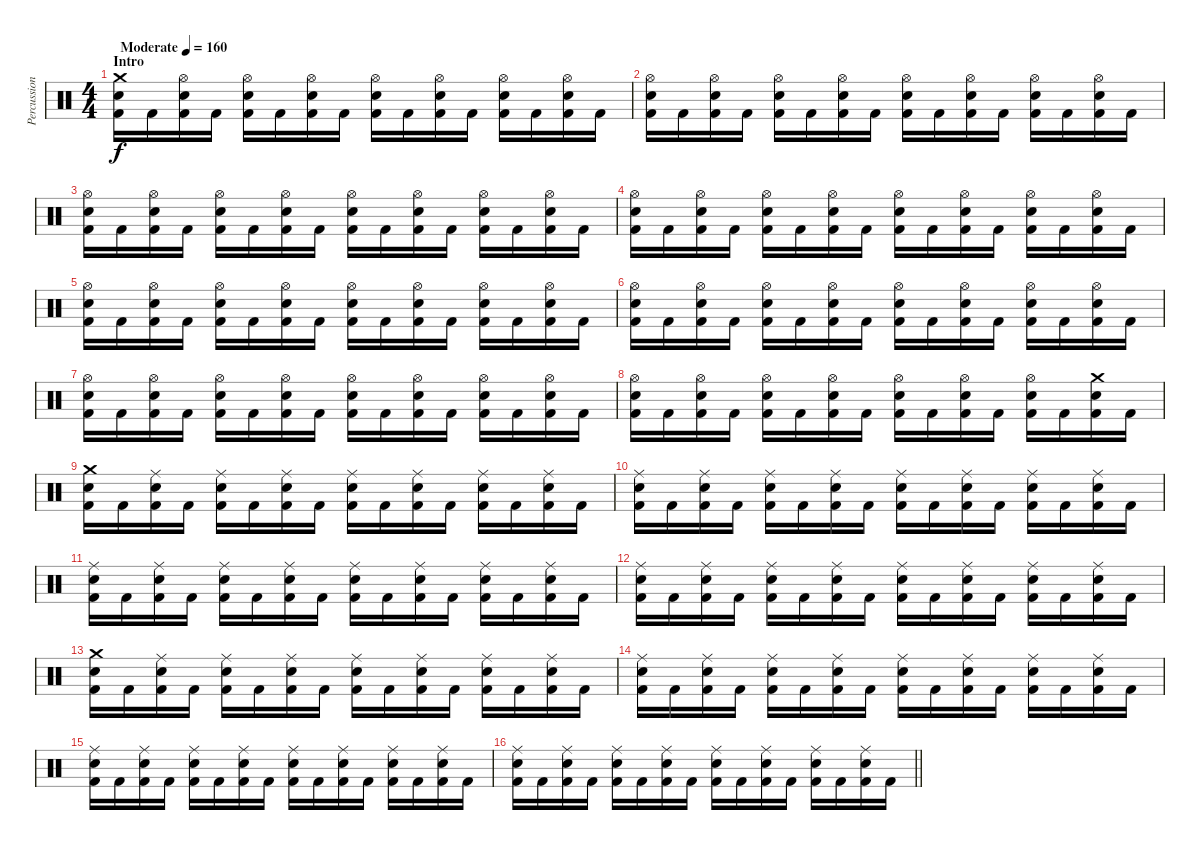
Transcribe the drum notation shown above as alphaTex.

\track ("Percussion" "Percussion") {instrument percussion}
\staff {score}
\articulation defaults
\ts (4 4)
\section ("" "Intro")
\tempo (160 "Moderate")
\clef neutral
\ks c
("Crash medium (hit)" "Snare (hit) 2" "Kick (hit) 2").16{dy f} "Kick (hit) 2".16 ("Hi-Hat (open)" "Snare (hit) 2" "Kick (hit) 2").16 "Kick (hit) 2".16 ("Hi-Hat (open)" "Snare (hit) 2" "Kick (hit) 2").16 "Kick (hit) 2".16 ("Hi-Hat (open)" "Snare (hit) 2" "Kick (hit) 2").16 "Kick (hit) 2".16 ("Hi-Hat (open)" "Snare (hit) 2" "Kick (hit) 2").16 "Kick (hit) 2".16 ("Hi-Hat (open)" "Snare (hit) 2" "Kick (hit) 2").16 "Kick (hit) 2".16 ("Hi-Hat (open)" "Snare (hit) 2" "Kick (hit) 2").16 "Kick (hit) 2".16 ("Hi-Hat (open)" "Snare (hit) 2" "Kick (hit) 2").16 "Kick (hit) 2".16 |
("Hi-Hat (open)" "Snare (hit) 2" "Kick (hit) 2").16 "Kick (hit) 2".16 ("Hi-Hat (open)" "Snare (hit) 2" "Kick (hit) 2").16 "Kick (hit) 2".16 ("Hi-Hat (open)" "Snare (hit) 2" "Kick (hit) 2").16 "Kick (hit) 2".16 ("Hi-Hat (open)" "Snare (hit) 2" "Kick (hit) 2").16 "Kick (hit) 2".16 ("Hi-Hat (open)" "Snare (hit) 2" "Kick (hit) 2").16 "Kick (hit) 2".16 ("Hi-Hat (open)" "Snare (hit) 2" "Kick (hit) 2").16 "Kick (hit) 2".16 ("Hi-Hat (open)" "Snare (hit) 2" "Kick (hit) 2").16 "Kick (hit) 2".16 ("Hi-Hat (open)" "Snare (hit) 2" "Kick (hit) 2").16 "Kick (hit) 2".16 |
("Hi-Hat (open)" "Snare (hit) 2" "Kick (hit) 2").16 "Kick (hit) 2".16 ("Hi-Hat (open)" "Snare (hit) 2" "Kick (hit) 2").16 "Kick (hit) 2".16 ("Hi-Hat (open)" "Snare (hit) 2" "Kick (hit) 2").16 "Kick (hit) 2".16 ("Hi-Hat (open)" "Snare (hit) 2" "Kick (hit) 2").16 "Kick (hit) 2".16 ("Hi-Hat (open)" "Snare (hit) 2" "Kick (hit) 2").16 "Kick (hit) 2".16 ("Hi-Hat (open)" "Snare (hit) 2" "Kick (hit) 2").16 "Kick (hit) 2".16 ("Hi-Hat (open)" "Snare (hit) 2" "Kick (hit) 2").16 "Kick (hit) 2".16 ("Hi-Hat (open)" "Snare (hit) 2" "Kick (hit) 2").16 "Kick (hit) 2".16 |
("Hi-Hat (open)" "Snare (hit) 2" "Kick (hit) 2").16 "Kick (hit) 2".16 ("Hi-Hat (open)" "Snare (hit) 2" "Kick (hit) 2").16 "Kick (hit) 2".16 ("Hi-Hat (open)" "Snare (hit) 2" "Kick (hit) 2").16 "Kick (hit) 2".16 ("Hi-Hat (open)" "Snare (hit) 2" "Kick (hit) 2").16 "Kick (hit) 2".16 ("Hi-Hat (open)" "Snare (hit) 2" "Kick (hit) 2").16 "Kick (hit) 2".16 ("Hi-Hat (open)" "Snare (hit) 2" "Kick (hit) 2").16 "Kick (hit) 2".16 ("Hi-Hat (open)" "Snare (hit) 2" "Kick (hit) 2").16 "Kick (hit) 2".16 ("Hi-Hat (open)" "Snare (hit) 2" "Kick (hit) 2").16 "Kick (hit) 2".16 |
("Hi-Hat (open)" "Snare (hit) 2" "Kick (hit) 2").16 "Kick (hit) 2".16 ("Hi-Hat (open)" "Snare (hit) 2" "Kick (hit) 2").16 "Kick (hit) 2".16 ("Hi-Hat (open)" "Snare (hit) 2" "Kick (hit) 2").16 "Kick (hit) 2".16 ("Hi-Hat (open)" "Snare (hit) 2" "Kick (hit) 2").16 "Kick (hit) 2".16 ("Hi-Hat (open)" "Snare (hit) 2" "Kick (hit) 2").16 "Kick (hit) 2".16 ("Hi-Hat (open)" "Snare (hit) 2" "Kick (hit) 2").16 "Kick (hit) 2".16 ("Hi-Hat (open)" "Snare (hit) 2" "Kick (hit) 2").16 "Kick (hit) 2".16 ("Hi-Hat (open)" "Snare (hit) 2" "Kick (hit) 2").16 "Kick (hit) 2".16 |
("Hi-Hat (open)" "Snare (hit) 2" "Kick (hit) 2").16 "Kick (hit) 2".16 ("Hi-Hat (open)" "Snare (hit) 2" "Kick (hit) 2").16 "Kick (hit) 2".16 ("Hi-Hat (open)" "Snare (hit) 2" "Kick (hit) 2").16 "Kick (hit) 2".16 ("Hi-Hat (open)" "Snare (hit) 2" "Kick (hit) 2").16 "Kick (hit) 2".16 ("Hi-Hat (open)" "Snare (hit) 2" "Kick (hit) 2").16 "Kick (hit) 2".16 ("Hi-Hat (open)" "Snare (hit) 2" "Kick (hit) 2").16 "Kick (hit) 2".16 ("Hi-Hat (open)" "Snare (hit) 2" "Kick (hit) 2").16 "Kick (hit) 2".16 ("Hi-Hat (open)" "Snare (hit) 2" "Kick (hit) 2").16 "Kick (hit) 2".16 |
("Hi-Hat (open)" "Snare (hit) 2" "Kick (hit) 2").16 "Kick (hit) 2".16 ("Hi-Hat (open)" "Snare (hit) 2" "Kick (hit) 2").16 "Kick (hit) 2".16 ("Hi-Hat (open)" "Snare (hit) 2" "Kick (hit) 2").16 "Kick (hit) 2".16 ("Hi-Hat (open)" "Snare (hit) 2" "Kick (hit) 2").16 "Kick (hit) 2".16 ("Hi-Hat (open)" "Snare (hit) 2" "Kick (hit) 2").16 "Kick (hit) 2".16 ("Hi-Hat (open)" "Snare (hit) 2" "Kick (hit) 2").16 "Kick (hit) 2".16 ("Hi-Hat (open)" "Snare (hit) 2" "Kick (hit) 2").16 "Kick (hit) 2".16 ("Hi-Hat (open)" "Snare (hit) 2" "Kick (hit) 2").16 "Kick (hit) 2".16 |
("Hi-Hat (open)" "Snare (hit) 2" "Kick (hit) 2").16 "Kick (hit) 2".16 ("Hi-Hat (open)" "Snare (hit) 2" "Kick (hit) 2").16 "Kick (hit) 2".16 ("Hi-Hat (open)" "Snare (hit) 2" "Kick (hit) 2").16 "Kick (hit) 2".16 ("Hi-Hat (open)" "Snare (hit) 2" "Kick (hit) 2").16 "Kick (hit) 2".16 ("Hi-Hat (open)" "Snare (hit) 2" "Kick (hit) 2").16 "Kick (hit) 2".16 ("Hi-Hat (open)" "Snare (hit) 2" "Kick (hit) 2").16 "Kick (hit) 2".16 ("Hi-Hat (open)" "Snare (hit) 2" "Kick (hit) 2").16 "Kick (hit) 2".16 ("Crash medium (hit)" "Snare (hit) 2" "Kick (hit) 2").16 "Kick (hit) 2".16 |
("Crash medium (hit)" "Snare (hit) 2" "Kick (hit) 2").16 "Kick (hit) 2".16 ("Ride (middle)" "Snare (hit) 2" "Kick (hit) 2").16 "Kick (hit) 2".16 ("Ride (middle)" "Snare (hit) 2" "Kick (hit) 2").16 "Kick (hit) 2".16 ("Ride (middle)" "Snare (hit) 2" "Kick (hit) 2").16 "Kick (hit) 2".16 ("Ride (middle)" "Snare (hit) 2" "Kick (hit) 2").16 "Kick (hit) 2".16 ("Ride (middle)" "Snare (hit) 2" "Kick (hit) 2").16 "Kick (hit) 2".16 ("Ride (middle)" "Snare (hit) 2" "Kick (hit) 2").16 "Kick (hit) 2".16 ("Ride (middle)" "Snare (hit) 2" "Kick (hit) 2").16 "Kick (hit) 2".16 |
("Ride (middle)" "Snare (hit) 2" "Kick (hit) 2").16 "Kick (hit) 2".16 ("Ride (middle)" "Snare (hit) 2" "Kick (hit) 2").16 "Kick (hit) 2".16 ("Ride (middle)" "Snare (hit) 2" "Kick (hit) 2").16 "Kick (hit) 2".16 ("Ride (middle)" "Snare (hit) 2" "Kick (hit) 2").16 "Kick (hit) 2".16 ("Ride (middle)" "Snare (hit) 2" "Kick (hit) 2").16 "Kick (hit) 2".16 ("Ride (middle)" "Snare (hit) 2" "Kick (hit) 2").16 "Kick (hit) 2".16 ("Ride (middle)" "Snare (hit) 2" "Kick (hit) 2").16 "Kick (hit) 2".16 ("Ride (middle)" "Snare (hit) 2" "Kick (hit) 2").16 "Kick (hit) 2".16 |
("Ride (middle)" "Snare (hit) 2" "Kick (hit) 2").16 "Kick (hit) 2".16 ("Ride (middle)" "Snare (hit) 2" "Kick (hit) 2").16 "Kick (hit) 2".16 ("Ride (middle)" "Snare (hit) 2" "Kick (hit) 2").16 "Kick (hit) 2".16 ("Ride (middle)" "Snare (hit) 2" "Kick (hit) 2").16 "Kick (hit) 2".16 ("Ride (middle)" "Snare (hit) 2" "Kick (hit) 2").16 "Kick (hit) 2".16 ("Ride (middle)" "Snare (hit) 2" "Kick (hit) 2").16 "Kick (hit) 2".16 ("Ride (middle)" "Snare (hit) 2" "Kick (hit) 2").16 "Kick (hit) 2".16 ("Ride (middle)" "Snare (hit) 2" "Kick (hit) 2").16 "Kick (hit) 2".16 |
("Ride (middle)" "Snare (hit) 2" "Kick (hit) 2").16 "Kick (hit) 2".16 ("Ride (middle)" "Snare (hit) 2" "Kick (hit) 2").16 "Kick (hit) 2".16 ("Ride (middle)" "Snare (hit) 2" "Kick (hit) 2").16 "Kick (hit) 2".16 ("Ride (middle)" "Snare (hit) 2" "Kick (hit) 2").16 "Kick (hit) 2".16 ("Ride (middle)" "Snare (hit) 2" "Kick (hit) 2").16 "Kick (hit) 2".16 ("Ride (middle)" "Snare (hit) 2" "Kick (hit) 2").16 "Kick (hit) 2".16 ("Ride (middle)" "Snare (hit) 2" "Kick (hit) 2").16 "Kick (hit) 2".16 ("Ride (middle)" "Snare (hit) 2" "Kick (hit) 2").16 "Kick (hit) 2".16 |
("Crash medium (hit)" "Snare (hit) 2" "Kick (hit) 2").16 "Kick (hit) 2".16 ("Ride (middle)" "Snare (hit) 2" "Kick (hit) 2").16 "Kick (hit) 2".16 ("Ride (middle)" "Snare (hit) 2" "Kick (hit) 2").16 "Kick (hit) 2".16 ("Ride (middle)" "Snare (hit) 2" "Kick (hit) 2").16 "Kick (hit) 2".16 ("Ride (middle)" "Snare (hit) 2" "Kick (hit) 2").16 "Kick (hit) 2".16 ("Ride (middle)" "Snare (hit) 2" "Kick (hit) 2").16 "Kick (hit) 2".16 ("Ride (middle)" "Snare (hit) 2" "Kick (hit) 2").16 "Kick (hit) 2".16 ("Ride (middle)" "Snare (hit) 2" "Kick (hit) 2").16 "Kick (hit) 2".16 |
("Ride (middle)" "Snare (hit) 2" "Kick (hit) 2").16 "Kick (hit) 2".16 ("Ride (middle)" "Snare (hit) 2" "Kick (hit) 2").16 "Kick (hit) 2".16 ("Ride (middle)" "Snare (hit) 2" "Kick (hit) 2").16 "Kick (hit) 2".16 ("Ride (middle)" "Snare (hit) 2" "Kick (hit) 2").16 "Kick (hit) 2".16 ("Ride (middle)" "Snare (hit) 2" "Kick (hit) 2").16 "Kick (hit) 2".16 ("Ride (middle)" "Snare (hit) 2" "Kick (hit) 2").16 "Kick (hit) 2".16 ("Ride (middle)" "Snare (hit) 2" "Kick (hit) 2").16 "Kick (hit) 2".16 ("Ride (middle)" "Snare (hit) 2" "Kick (hit) 2").16 "Kick (hit) 2".16 |
("Ride (middle)" "Snare (hit) 2" "Kick (hit) 2").16 "Kick (hit) 2".16 ("Ride (middle)" "Snare (hit) 2" "Kick (hit) 2").16 "Kick (hit) 2".16 ("Ride (middle)" "Snare (hit) 2" "Kick (hit) 2").16 "Kick (hit) 2".16 ("Ride (middle)" "Snare (hit) 2" "Kick (hit) 2").16 "Kick (hit) 2".16 ("Ride (middle)" "Snare (hit) 2" "Kick (hit) 2").16 "Kick (hit) 2".16 ("Ride (middle)" "Snare (hit) 2" "Kick (hit) 2").16 "Kick (hit) 2".16 ("Ride (middle)" "Snare (hit) 2" "Kick (hit) 2").16 "Kick (hit) 2".16 ("Ride (middle)" "Snare (hit) 2" "Kick (hit) 2").16 "Kick (hit) 2".16 |
\barLineRight lightlight
("Ride (middle)" "Snare (hit) 2" "Kick (hit) 2").16 "Kick (hit) 2".16 ("Ride (middle)" "Snare (hit) 2" "Kick (hit) 2").16 "Kick (hit) 2".16 ("Ride (middle)" "Snare (hit) 2" "Kick (hit) 2").16 "Kick (hit) 2".16 ("Ride (middle)" "Snare (hit) 2" "Kick (hit) 2").16 "Kick (hit) 2".16 ("Ride (middle)" "Snare (hit) 2" "Kick (hit) 2").16 "Kick (hit) 2".16 ("Ride (middle)" "Snare (hit) 2" "Kick (hit) 2").16 "Kick (hit) 2".16 ("Ride (middle)" "Snare (hit) 2" "Kick (hit) 2").16 "Kick (hit) 2".16 ("Ride (middle)" "Snare (hit) 2" "Kick (hit) 2").16 "Kick (hit) 2".16
